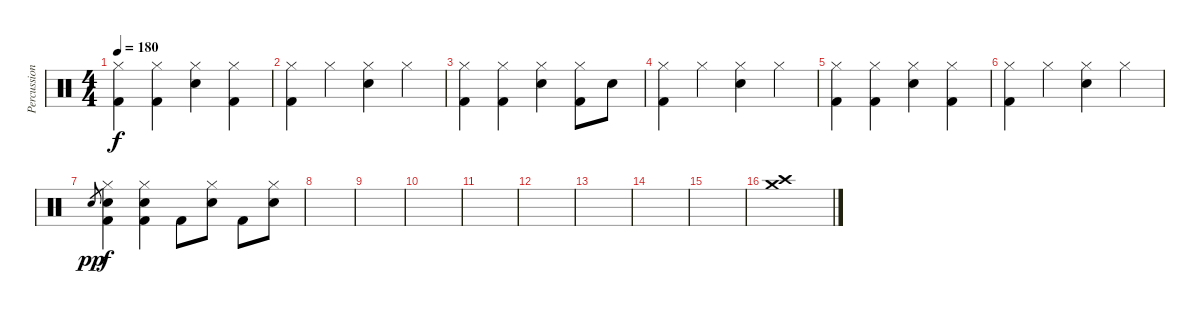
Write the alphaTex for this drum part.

\track ("Percussions" "Percussion") {instrument percussion}
\staff {score}
\articulation defaults
\ts (4 4)
\tempo 180
\clef neutral
\ks c
("Hi-Hat (closed)" "Kick (hit) 2").4{dy f} ("Hi-Hat (closed)" "Kick (hit) 2").4 ("Hi-Hat (closed)" "Snare (hit) 2").4 ("Hi-Hat (closed)" "Kick (hit) 2").4 |
("Hi-Hat (closed)" "Kick (hit) 2").4 "Hi-Hat (closed)".4 ("Hi-Hat (closed)" "Snare (hit) 2").4 "Hi-Hat (closed)".4 |
("Hi-Hat (closed)" "Kick (hit) 2").4 ("Hi-Hat (closed)" "Kick (hit) 2").4 ("Hi-Hat (closed)" "Snare (hit) 2").4 ("Hi-Hat (closed)" "Kick (hit) 2").8 "Snare (hit) 2".8 |
("Hi-Hat (closed)" "Kick (hit) 2").4 "Hi-Hat (closed)".4 ("Hi-Hat (closed)" "Snare (hit) 2").4 "Hi-Hat (closed)".4 |
("Hi-Hat (closed)" "Kick (hit) 2").4 ("Hi-Hat (closed)" "Kick (hit) 2").4 ("Hi-Hat (closed)" "Snare (hit) 2").4 ("Hi-Hat (closed)" "Kick (hit) 2").4 |
("Hi-Hat (closed)" "Kick (hit) 2").4 "Hi-Hat (closed)".4 ("Hi-Hat (closed)" "Snare (hit) 2").4 "Hi-Hat (closed)".4 |
"Snare (hit) 2".8{gr dy pp} ("Hi-Hat (closed)" "Snare (hit) 2" "Kick (hit) 2").4{dy f} ("Hi-Hat (closed)" "Snare (hit) 2" "Kick (hit) 2").4 "Kick (hit) 2".8 ("Hi-Hat (closed)" "Snare (hit) 2").8 "Kick (hit) 2".8 ("Hi-Hat (closed)" "Snare (hit) 2").8 |
|
|
|
|
|
|
|
|
("Crash high (hit)" "Crash medium (hit)").1
